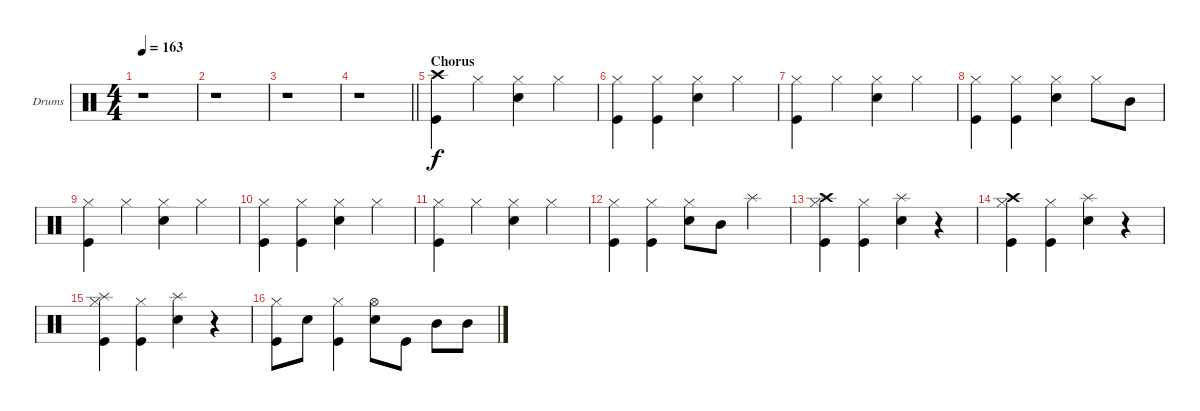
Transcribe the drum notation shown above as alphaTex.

\bracketExtendMode groupsimilarinstruments
\firstSystemTrackNameOrientation horizontal
\otherSystemsTrackNameOrientation horizontal
\track ("Drumkit" "Drums") {instrument percussion}
\staff {score}
\articulation defaults
\ts (4 4)
\tempo 163
\clef neutral
\scale
0.333333
\ks c
r.1{dy f} |
\scale
0.333333 r.1 |
\scale
0.333333 r.1 |
\scale
0.333333
\barLineRight lightlight
r.1 |
\section ("" "Chorus")
\scale
0.333333 ("Crash high (hit)" "Kick (hit)").4 "Hi-Hat (closed)".4 ("Hi-Hat (closed)" "Snare (hit) 2").4 "Hi-Hat (closed)".4 |
\scale
0.333333 ("Hi-Hat (closed)" "Kick (hit)").4 ("Hi-Hat (closed)" "Kick (hit)").4 ("Hi-Hat (closed)" "Snare (hit) 2").4 "Hi-Hat (closed)".4 |
\scale
0.333333 ("Hi-Hat (closed)" "Kick (hit)").4 "Hi-Hat (closed)".4 ("Hi-Hat (closed)" "Snare (hit) 2").4 "Hi-Hat (closed)".4 |
\scale
0.333333 ("Hi-Hat (closed)" "Kick (hit)").4 ("Hi-Hat (closed)" "Kick (hit)").4 ("Hi-Hat (closed)" "Snare (hit) 2").4 "Hi-Hat (closed)".8 "Mid Tom (hit)".8 |
\scale
0.333333 ("Hi-Hat (closed)" "Kick (hit)").4 "Hi-Hat (closed)".4 ("Hi-Hat (closed)" "Snare (hit) 2").4 "Hi-Hat (closed)".4 |
\scale
0.333333 ("Hi-Hat (closed)" "Kick (hit)").4 ("Hi-Hat (closed)" "Kick (hit)").4 ("Hi-Hat (closed)" "Snare (hit) 2").4 "Hi-Hat (closed)".4 |
\scale
0.333333 ("Hi-Hat (closed)" "Kick (hit)").4 "Hi-Hat (closed)".4 ("Hi-Hat (closed)" "Snare (hit) 2").4 "Hi-Hat (closed)".4 |
\scale
0.333333 ("Hi-Hat (closed)" "Kick (hit)").4 ("Hi-Hat (closed)" "Kick (hit)").4 ("Hi-Hat (closed)" "Snare (hit) 2").8 "Mid Tom (hit)".8 "Splash (hit)".4 |
\scale
0.333333 ("Crash high (hit)" "Kick (hit)" "Hi-Hat (closed)").4 ("Kick (hit)" "Hi-Hat (closed)").4 ("Splash (hit)" "Snare (hit) 2").4 r.4 |
\scale
0.333333 ("Crash high (hit)" "Kick (hit)" "Hi-Hat (closed)").4 ("Kick (hit)" "Hi-Hat (closed)").4 ("Splash (hit)" "Snare (hit) 2").4 r.4 |
\scale
0.333333 ("Splash (hit)" "Kick (hit)" "Hi-Hat (closed)").4 ("Kick (hit)" "Hi-Hat (closed)").4 ("Splash (hit)" "Snare (hit) 2").4 r.4 |
\scale
0.333333 ("Kick (hit)" "Hi-Hat (closed)").8 "Snare (hit) 2".8 ("Kick (hit)" "Hi-Hat (closed)").4 ("Hi-Hat (open)" "Snare (hit) 2").8 "Kick (hit)".8 "Mid Tom (hit)".8 "Mid Tom (hit)".8
